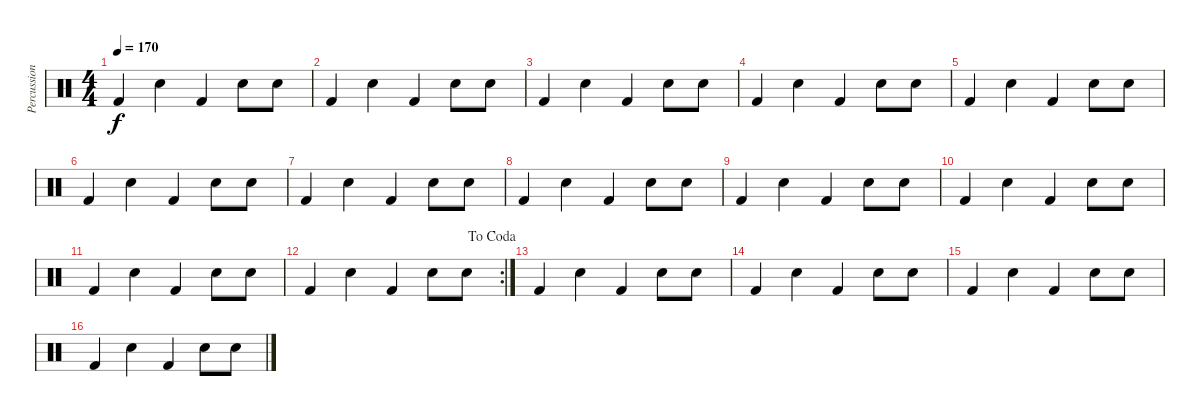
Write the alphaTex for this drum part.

\track ("Percussions" "Percussion") {instrument percussion}
\staff {score}
\articulation defaults
\ts (4 4)
\tempo 170
\clef neutral
\ks c "Kick (hit) 2".4{dy f} "Electric Snare (hit)".4 "Kick (hit) 2".4 "Electric Snare (hit)".8 "Electric Snare (hit)".8
|
"Kick (hit) 2".4 "Electric Snare (hit)".4 "Kick (hit) 2".4 "Electric Snare (hit)".8 "Electric Snare (hit)".8 |
"Kick (hit) 2".4 "Electric Snare (hit)".4 "Kick (hit) 2".4 "Electric Snare (hit)".8 "Electric Snare (hit)".8 |
"Kick (hit) 2".4 "Electric Snare (hit)".4 "Kick (hit) 2".4 "Electric Snare (hit)".8 "Electric Snare (hit)".8 |
"Kick (hit) 2".4 "Electric Snare (hit)".4 "Kick (hit) 2".4 "Electric Snare (hit)".8 "Electric Snare (hit)".8 |
"Kick (hit) 2".4 "Electric Snare (hit)".4 "Kick (hit) 2".4 "Electric Snare (hit)".8 "Electric Snare (hit)".8 |
"Kick (hit) 2".4 "Electric Snare (hit)".4 "Kick (hit) 2".4 "Electric Snare (hit)".8 "Electric Snare (hit)".8 |
"Kick (hit) 2".4 "Electric Snare (hit)".4 "Kick (hit) 2".4 "Electric Snare (hit)".8 "Electric Snare (hit)".8 |
"Kick (hit) 2".4 "Electric Snare (hit)".4 "Kick (hit) 2".4 "Electric Snare (hit)".8 "Electric Snare (hit)".8 |
"Kick (hit) 2".4 "Electric Snare (hit)".4 "Kick (hit) 2".4 "Electric Snare (hit)".8 "Electric Snare (hit)".8 |
"Kick (hit) 2".4 "Electric Snare (hit)".4 "Kick (hit) 2".4 "Electric Snare (hit)".8 "Electric Snare (hit)".8 |
\rc 2
\jump dacoda "Kick (hit) 2".4 "Electric Snare (hit)".4 "Kick (hit) 2".4 "Electric Snare (hit)".8 "Electric Snare (hit)".8
|
"Kick (hit) 2".4 "Electric Snare (hit)".4 "Kick (hit) 2".4 "Electric Snare (hit)".8 "Electric Snare (hit)".8 |
"Kick (hit) 2".4 "Electric Snare (hit)".4 "Kick (hit) 2".4 "Electric Snare (hit)".8 "Electric Snare (hit)".8 |
"Kick (hit) 2".4 "Electric Snare (hit)".4 "Kick (hit) 2".4 "Electric Snare (hit)".8 "Electric Snare (hit)".8 |
"Kick (hit) 2".4 "Electric Snare (hit)".4 "Kick (hit) 2".4 "Electric Snare (hit)".8 "Electric Snare (hit)".8
